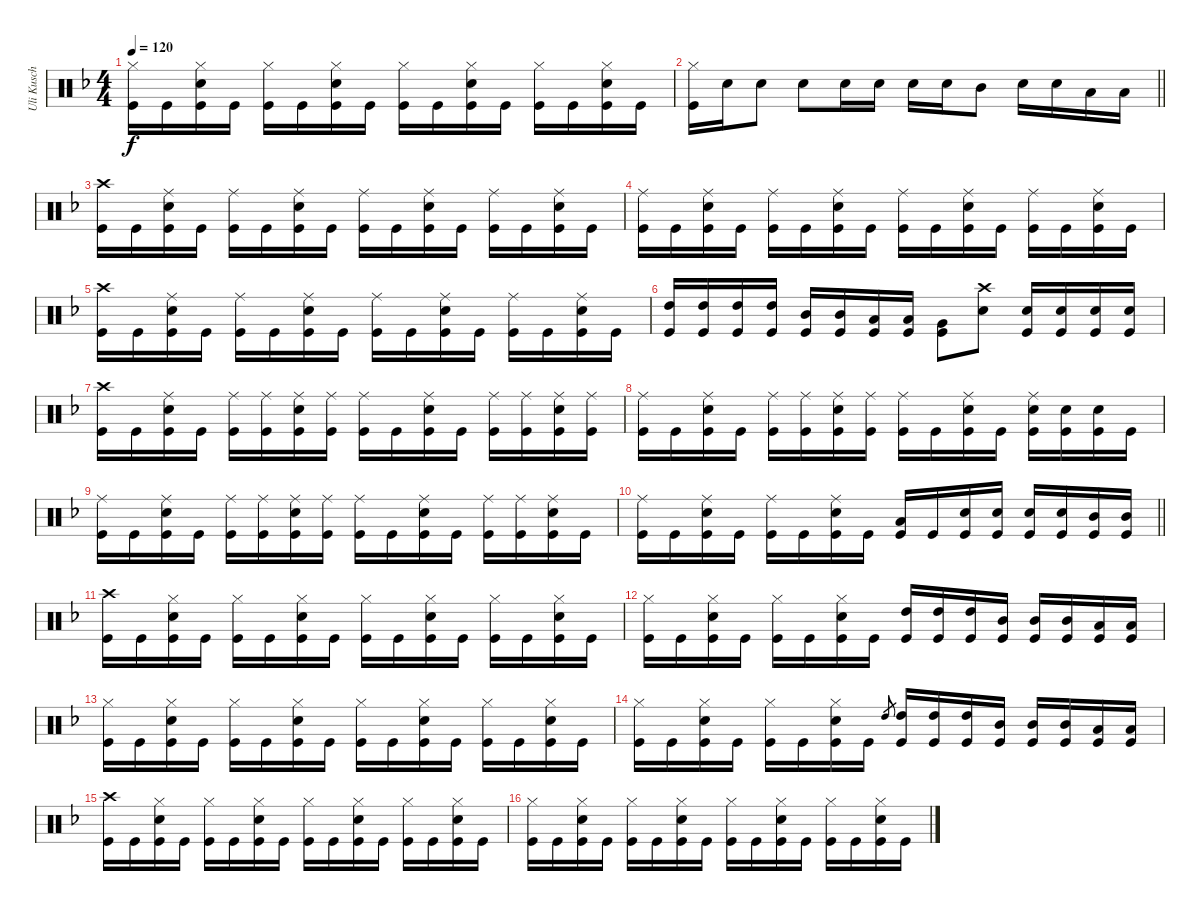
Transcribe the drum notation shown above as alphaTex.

\track ("Uli Kusch" "Uli Kusch") {instrument percussion}
\staff {score}
\articulation defaults
\ts (4 4)
\tempo 120
\clef neutral
\ks dminor
("Hi-Hat (closed)" "Kick (hit)").16{dy f} "Kick (hit)".16 ("Hi-Hat (closed)" "Snare (hit) 2" "Kick (hit)").16 "Kick (hit)".16 ("Hi-Hat (closed)" "Kick (hit)").16 "Kick (hit)".16 ("Hi-Hat (closed)" "Snare (hit) 2" "Kick (hit)").16 "Kick (hit)".16 ("Hi-Hat (closed)" "Kick (hit)").16 "Kick (hit)".16 ("Hi-Hat (closed)" "Snare (hit) 2" "Kick (hit)").16 "Kick (hit)".16 ("Hi-Hat (closed)" "Kick (hit)").16 "Kick (hit)".16 ("Hi-Hat (closed)" "Snare (hit) 2" "Kick (hit)").16 "Kick (hit)".16 |
\barLineRight lightlight
("Hi-Hat (closed)" "Kick (hit)").16 "Snare (hit) 2".16 "Snare (hit) 2".8 "Snare (hit) 2".8 "Snare (hit) 2".16 "Snare (hit) 2".16 "Snare (hit) 2".16 "Snare (hit) 2".16 "Mid Tom (hit)".8 "Snare (hit) 2".16 "Snare (hit) 2".16 "Low Tom (hit)".16 "Low Tom (hit)".16 |
("Crash high (hit)" "Kick (hit)").16 "Kick (hit)".16 ("Ride (middle)" "Snare (hit) 2" "Kick (hit)").16 "Kick (hit)".16 ("Ride (middle)" "Kick (hit)").16 "Kick (hit)".16 ("Ride (middle)" "Snare (hit) 2" "Kick (hit)").16 "Kick (hit)".16 ("Ride (middle)" "Kick (hit)").16 "Kick (hit)".16 ("Ride (middle)" "Snare (hit) 2" "Kick (hit)").16 "Kick (hit)".16 ("Ride (middle)" "Kick (hit)").16 "Kick (hit)".16 ("Ride (middle)" "Snare (hit) 2" "Kick (hit)").16 "Kick (hit)".16 |
("Ride (middle)" "Kick (hit)").16 "Kick (hit)".16 ("Ride (middle)" "Snare (hit) 2" "Kick (hit)").16 "Kick (hit)".16 ("Ride (middle)" "Kick (hit)").16 "Kick (hit)".16 ("Ride (middle)" "Snare (hit) 2" "Kick (hit)").16 "Kick (hit)".16 ("Ride (middle)" "Kick (hit)").16 "Kick (hit)".16 ("Ride (middle)" "Snare (hit) 2" "Kick (hit)").16 "Kick (hit)".16 ("Ride (middle)" "Kick (hit)").16 "Kick (hit)".16 ("Ride (middle)" "Snare (hit) 2" "Kick (hit)").16 "Kick (hit)".16 |
("Crash high (hit)" "Kick (hit)").16 "Kick (hit)".16 ("Ride (middle)" "Snare (hit) 2" "Kick (hit)").16 "Kick (hit)".16 ("Ride (middle)" "Kick (hit)").16 "Kick (hit)".16 ("Ride (middle)" "Snare (hit) 2" "Kick (hit)").16 "Kick (hit)".16 ("Ride (middle)" "Kick (hit)").16 "Kick (hit)".16 ("Ride (middle)" "Snare (hit) 2" "Kick (hit)").16 "Kick (hit)".16 ("Ride (middle)" "Kick (hit)").16 "Kick (hit)".16 ("Ride (middle)" "Snare (hit) 2" "Kick (hit)").16 "Kick (hit)".16 |
("High Tom (hit)" "Kick (hit)").16 ("High Tom (hit)" "Kick (hit)").16 ("High Tom (hit)" "Kick (hit)").16 ("High Tom (hit)" "Kick (hit)").16 ("Mid Tom (hit)" "Kick (hit)").16 ("Mid Tom (hit)" "Kick (hit)").16 ("Low Tom (hit)" "Kick (hit)").16 ("Low Tom (hit)" "Kick (hit)").16 ("Very Low Tom (hit)" "Kick (hit)").8 ("Crash high (hit)" "Snare (hit) 2").8 ("Snare (hit) 2" "Kick (hit)").16 ("Snare (hit) 2" "Kick (hit)").16 ("Snare (hit) 2" "Kick (hit)").16 ("Snare (hit) 2" "Kick (hit)").16 |
("Crash high (hit)" "Kick (hit)").16 "Kick (hit)".16 ("Ride (middle)" "Snare (hit) 2" "Kick (hit)").16 "Kick (hit)".16 ("Ride (middle)" "Kick (hit)").16 ("Ride (middle)" "Kick (hit)").16 ("Ride (middle)" "Snare (hit) 2" "Kick (hit)").16 ("Ride (middle)" "Kick (hit)").16 ("Ride (middle)" "Kick (hit)").16 "Kick (hit)".16 ("Ride (middle)" "Snare (hit) 2" "Kick (hit)").16 "Kick (hit)".16 ("Ride (middle)" "Kick (hit)").16 ("Ride (middle)" "Kick (hit)").16 ("Ride (middle)" "Snare (hit) 2" "Kick (hit)").16 ("Ride (middle)" "Kick (hit)").16 |
("Ride (middle)" "Kick (hit)").16 "Kick (hit)".16 ("Ride (middle)" "Snare (hit) 2" "Kick (hit)").16 "Kick (hit)".16 ("Ride (middle)" "Kick (hit)").16 ("Ride (middle)" "Kick (hit)").16 ("Ride (middle)" "Snare (hit) 2" "Kick (hit)").16 ("Ride (middle)" "Kick (hit)").16 ("Ride (middle)" "Kick (hit)").16 "Kick (hit)".16 ("Ride (middle)" "Snare (hit) 2" "Kick (hit)").16 "Kick (hit)".16 ("Ride (middle)" "Snare (hit) 2" "Kick (hit)").16 ("Snare (hit) 2" "Kick (hit)").16 ("Snare (hit) 2" "Kick (hit)").16 "Kick (hit)".16 |
("Ride (middle)" "Kick (hit)").16 "Kick (hit)".16 ("Ride (middle)" "Snare (hit) 2" "Kick (hit)").16 "Kick (hit)".16 ("Ride (middle)" "Kick (hit)").16 ("Ride (middle)" "Kick (hit)").16 ("Ride (middle)" "Snare (hit) 2" "Kick (hit)").16 ("Ride (middle)" "Kick (hit)").16 ("Ride (middle)" "Kick (hit)").16 "Kick (hit)".16 ("Ride (middle)" "Snare (hit) 2" "Kick (hit)").16 "Kick (hit)".16 ("Ride (middle)" "Kick (hit)").16 ("Ride (middle)" "Kick (hit)").16 ("Ride (middle)" "Snare (hit) 2" "Kick (hit)").16 "Kick (hit)".16 |
\barLineRight lightlight
("Ride (middle)" "Kick (hit)").16 "Kick (hit)".16 ("Ride (middle)" "Snare (hit) 2" "Kick (hit)").16 "Kick (hit)".16 ("Ride (middle)" "Kick (hit)").16 "Kick (hit)".16 ("Ride (middle)" "Snare (hit) 2" "Kick (hit)").16 "Kick (hit)".16 ("Low Tom (hit)" "Kick (hit)").16 "Kick (hit)".16 ("Snare (hit) 2" "Kick (hit)").16 ("Snare (hit) 2" "Kick (hit)").16 ("Snare (hit) 2" "Kick (hit)").16 ("Snare (hit) 2" "Kick (hit)").16 ("Mid Tom (hit)" "Kick (hit)").16 ("Mid Tom (hit)" "Kick (hit)").16 |
("Crash high (hit)" "Kick (hit)").16 "Kick (hit)".16 ("Hi-Hat (closed)" "Snare (hit) 2" "Kick (hit)").16 "Kick (hit)".16 ("Hi-Hat (closed)" "Kick (hit)").16 "Kick (hit)".16 ("Hi-Hat (closed)" "Snare (hit) 2" "Kick (hit)").16 "Kick (hit)".16 ("Hi-Hat (closed)" "Kick (hit)").16 "Kick (hit)".16 ("Hi-Hat (closed)" "Snare (hit) 2" "Kick (hit)").16 "Kick (hit)".16 ("Hi-Hat (closed)" "Kick (hit)").16 "Kick (hit)".16 ("Hi-Hat (closed)" "Snare (hit) 2" "Kick (hit)").16 "Kick (hit)".16 |
("Hi-Hat (closed)" "Kick (hit)").16 "Kick (hit)".16 ("Hi-Hat (closed)" "Snare (hit) 2" "Kick (hit)").16 "Kick (hit)".16 ("Hi-Hat (closed)" "Kick (hit)").16 "Kick (hit)".16 ("Hi-Hat (closed)" "Snare (hit) 2" "Kick (hit)").16 "Kick (hit)".16 ("High Tom (hit)" "Kick (hit)").16 ("High Tom (hit)" "Kick (hit)").16 ("High Tom (hit)" "Kick (hit)").16 ("Mid Tom (hit)" "Kick (hit)").16 ("Mid Tom (hit)" "Kick (hit)").16 ("Mid Tom (hit)" "Kick (hit)").16 ("Low Tom (hit)" "Kick (hit)").16 ("Low Tom (hit)" "Kick (hit)").16 |
("Hi-Hat (closed)" "Kick (hit)").16 "Kick (hit)".16 ("Hi-Hat (closed)" "Snare (hit) 2" "Kick (hit)").16 "Kick (hit)".16 ("Hi-Hat (closed)" "Kick (hit)").16 "Kick (hit)".16 ("Hi-Hat (closed)" "Snare (hit) 2" "Kick (hit)").16 "Kick (hit)".16 ("Hi-Hat (closed)" "Kick (hit)").16 "Kick (hit)".16 ("Hi-Hat (closed)" "Snare (hit) 2" "Kick (hit)").16 "Kick (hit)".16 ("Hi-Hat (closed)" "Kick (hit)").16 "Kick (hit)".16 ("Hi-Hat (closed)" "Snare (hit) 2" "Kick (hit)").16 "Kick (hit)".16 |
("Hi-Hat (closed)" "Kick (hit)").16 "Kick (hit)".16 ("Hi-Hat (closed)" "Snare (hit) 2" "Kick (hit)").16 "Kick (hit)".16 ("Hi-Hat (closed)" "Kick (hit)").16 "Kick (hit)".16 ("Hi-Hat (closed)" "Snare (hit) 2" "Kick (hit)").16 "Kick (hit)".16 "High Tom (hit)".8{gr} ("High Tom (hit)" "Kick (hit)").16 ("High Tom (hit)" "Kick (hit)").16 ("High Tom (hit)" "Kick (hit)").16 ("Mid Tom (hit)" "Kick (hit)").16 ("Mid Tom (hit)" "Kick (hit)").16 ("Mid Tom (hit)" "Kick (hit)").16 ("Low Tom (hit)" "Kick (hit)").16 ("Low Tom (hit)" "Kick (hit)").16 |
("Crash high (hit)" "Kick (hit)").16 "Kick (hit)".16 ("Hi-Hat (closed)" "Snare (hit) 2" "Kick (hit)").16 "Kick (hit)".16 ("Hi-Hat (closed)" "Kick (hit)").16 "Kick (hit)".16 ("Hi-Hat (closed)" "Snare (hit) 2" "Kick (hit)").16 "Kick (hit)".16 ("Hi-Hat (closed)" "Kick (hit)").16 "Kick (hit)".16 ("Hi-Hat (closed)" "Snare (hit) 2" "Kick (hit)").16 "Kick (hit)".16 ("Hi-Hat (closed)" "Kick (hit)").16 "Kick (hit)".16 ("Hi-Hat (closed)" "Snare (hit) 2" "Kick (hit)").16 "Kick (hit)".16 |
("Hi-Hat (closed)" "Kick (hit)").16 "Kick (hit)".16 ("Hi-Hat (closed)" "Snare (hit) 2" "Kick (hit)").16 "Kick (hit)".16 ("Hi-Hat (closed)" "Kick (hit)").16 "Kick (hit)".16 ("Hi-Hat (closed)" "Snare (hit) 2" "Kick (hit)").16 "Kick (hit)".16 ("Hi-Hat (closed)" "Kick (hit)").16 "Kick (hit)".16 ("Hi-Hat (closed)" "Snare (hit) 2" "Kick (hit)").16 "Kick (hit)".16 ("Hi-Hat (closed)" "Kick (hit)").16 "Kick (hit)".16 ("Hi-Hat (closed)" "Snare (hit) 2" "Kick (hit)").16 "Kick (hit)".16
